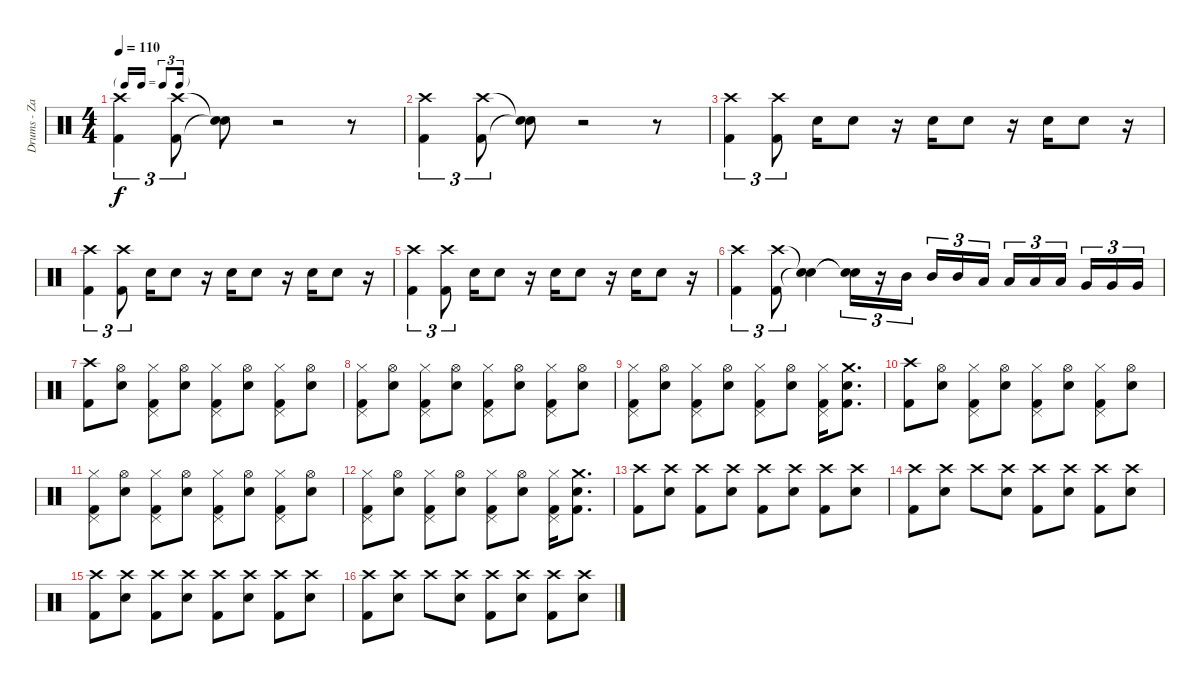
\track ("Drums - Zac" "Drums - Za") {instrument percussion}
\staff {score}
\articulation defaults
\ts (4 4)
\tf triplet16th
\tempo 110
\clef neutral
\ks c
("Crash high (hit)" "Kick (hit) 2").4{tu (3 2) dy f volume 12} ("Crash high (hit)" "Kick (hit) 2").8{tu (3 2)} ("Snare (hit)"{t} "Snare (hit)"{t}).8 r.2{volume 0} r.8 |
("Crash high (hit)" "Kick (hit) 2").4{tu (3 2) volume 12} ("Crash high (hit)" "Kick (hit) 2").8{tu (3 2)} ("Snare (hit)"{t} "Snare (hit)"{t}).8 r.2{volume 0} r.8 |
("Crash high (hit)" "Kick (hit) 2").4{tu (3 2) volume 12} ("Crash high (hit)" "Kick (hit) 2").8{tu (3 2)} "Snare (hit) 2".16 "Snare (hit) 2".8 r.16 "Snare (hit) 2".16 "Snare (hit) 2".8 r.16 "Snare (hit) 2".16 "Snare (hit) 2".8 r.16 |
("Crash high (hit)" "Kick (hit) 2").4{tu (3 2)} ("Crash high (hit)" "Kick (hit) 2").8{tu (3 2)} "Snare (hit) 2".16 "Snare (hit) 2".8 r.16 "Snare (hit) 2".16 "Snare (hit) 2".8 r.16 "Snare (hit) 2".16 "Snare (hit) 2".8 r.16 |
("Crash high (hit)" "Kick (hit) 2").4{tu (3 2)} ("Crash high (hit)" "Kick (hit) 2").8{tu (3 2)} "Snare (hit) 2".16 "Snare (hit) 2".8 r.16 "Snare (hit) 2".16 "Snare (hit) 2".8 r.16 "Snare (hit) 2".16 "Snare (hit) 2".8 r.16 |
("Crash high (hit)" "Kick (hit) 2").4{tu (3 2)} ("Crash high (hit)" "Kick (hit) 2").8{tu (3 2)} ("Snare (hit)"{t} "Snare (hit)"{t}).4 ("Snare (hit)"{t} "Snare (hit)"{t}).16{tu (3 2)} r.16{tu (3 2)} "Mid Tom (hit)".16{tu (3 2) beam splitsecondary} "Mid Tom (hit)".16{tu (3 2)} "Mid Tom (hit)".16{tu (3 2)} "Low Tom (hit)".16{tu (3 2)} "Low Tom (hit)".16{tu (3 2)} "Low Tom (hit)".16{tu (3 2)} "Low Tom (hit)".16{tu (3 2) beam splitsecondary} "Very Low Tom (hit)".16{tu (3 2)} "Very Low Tom (hit)".16{tu (3 2)} "Very Low Tom (hit)".16{tu (3 2)} |
("Crash high (hit)" "Kick (hit) 2").8 ("Hi-Hat (open)" "Snare (hit) 2").8 ("Pedal Hi-Hat (hit)" "Hi-Hat (closed)" "Kick (hit) 2").8 ("Hi-Hat (open)" "Snare (hit) 2").8 ("Pedal Hi-Hat (hit)" "Hi-Hat (closed)" "Kick (hit) 2").8 ("Hi-Hat (open)" "Snare (hit) 2").8 ("Pedal Hi-Hat (hit)" "Hi-Hat (closed)" "Kick (hit) 2").8 ("Hi-Hat (open)" "Snare (hit) 2").8 |
("Pedal Hi-Hat (hit)" "Hi-Hat (closed)" "Kick (hit) 2").8 ("Hi-Hat (open)" "Snare (hit) 2").8 ("Pedal Hi-Hat (hit)" "Hi-Hat (closed)" "Kick (hit) 2").8 ("Hi-Hat (open)" "Snare (hit) 2").8 ("Pedal Hi-Hat (hit)" "Hi-Hat (closed)" "Kick (hit) 2").8 ("Hi-Hat (open)" "Snare (hit) 2").8 ("Pedal Hi-Hat (hit)" "Hi-Hat (closed)" "Kick (hit) 2").8 ("Hi-Hat (open)" "Snare (hit) 2").8 |
("Pedal Hi-Hat (hit)" "Hi-Hat (closed)" "Kick (hit) 2").8 ("Hi-Hat (open)" "Snare (hit) 2").8 ("Pedal Hi-Hat (hit)" "Hi-Hat (closed)" "Kick (hit) 2").8 ("Hi-Hat (open)" "Snare (hit) 2").8 ("Pedal Hi-Hat (hit)" "Hi-Hat (closed)" "Kick (hit) 2").8 ("Hi-Hat (open)" "Snare (hit) 2").8 ("Pedal Hi-Hat (hit)" "Hi-Hat (closed)" "Kick (hit) 2").16 ("Crash medium (hit)" "Snare (hit) 2" "Kick (hit) 2").8{d} |
("Crash high (hit)" "Kick (hit) 2").8 ("Hi-Hat (open)" "Snare (hit) 2").8 ("Pedal Hi-Hat (hit)" "Hi-Hat (closed)" "Kick (hit) 2").8 ("Hi-Hat (open)" "Snare (hit) 2").8 ("Pedal Hi-Hat (hit)" "Hi-Hat (closed)" "Kick (hit) 2").8 ("Hi-Hat (open)" "Snare (hit) 2").8 ("Pedal Hi-Hat (hit)" "Hi-Hat (closed)" "Kick (hit) 2").8 ("Hi-Hat (open)" "Snare (hit) 2").8 |
("Pedal Hi-Hat (hit)" "Hi-Hat (closed)" "Kick (hit) 2").8 ("Hi-Hat (open)" "Snare (hit) 2").8 ("Pedal Hi-Hat (hit)" "Hi-Hat (closed)" "Kick (hit) 2").8 ("Hi-Hat (open)" "Snare (hit) 2").8 ("Pedal Hi-Hat (hit)" "Hi-Hat (closed)" "Kick (hit) 2").8 ("Hi-Hat (open)" "Snare (hit) 2").8 ("Pedal Hi-Hat (hit)" "Hi-Hat (closed)" "Kick (hit) 2").8 ("Hi-Hat (open)" "Snare (hit) 2").8 |
("Pedal Hi-Hat (hit)" "Hi-Hat (closed)" "Kick (hit) 2").8 ("Hi-Hat (open)" "Snare (hit) 2").8 ("Pedal Hi-Hat (hit)" "Hi-Hat (closed)" "Kick (hit) 2").8 ("Hi-Hat (open)" "Snare (hit) 2").8 ("Pedal Hi-Hat (hit)" "Hi-Hat (closed)" "Kick (hit) 2").8 ("Hi-Hat (open)" "Snare (hit) 2").8 ("Pedal Hi-Hat (hit)" "Hi-Hat (closed)" "Kick (hit) 2").16 ("Crash medium (hit)" "Snare (hit) 2" "Kick (hit) 2").8{d} |
("Crash high (hit)" "Kick (hit) 2").8 ("Crash high (hit)" "Snare (hit) 2").8 ("Crash high (hit)" "Kick (hit) 2").8 ("Crash high (hit)" "Snare (hit) 2").8 ("Crash high (hit)" "Kick (hit) 2").8 ("Crash high (hit)" "Snare (hit) 2").8 ("Crash high (hit)" "Kick (hit) 2").8 ("Crash high (hit)" "Snare (hit) 2").8 |
("Crash high (hit)" "Kick (hit) 2").8 ("Crash high (hit)" "Snare (hit) 2").8 "Crash high (hit)".8 ("Crash high (hit)" "Snare (hit) 2").8 ("Crash high (hit)" "Kick (hit) 2").8 ("Crash high (hit)" "Snare (hit) 2").8 ("Crash high (hit)" "Kick (hit) 2").8 ("Crash high (hit)" "Snare (hit) 2").8 |
("Crash high (hit)" "Kick (hit) 2").8 ("Crash high (hit)" "Snare (hit) 2").8 ("Crash high (hit)" "Kick (hit) 2").8 ("Crash high (hit)" "Snare (hit) 2").8 ("Crash high (hit)" "Kick (hit) 2").8 ("Crash high (hit)" "Snare (hit) 2").8 ("Crash high (hit)" "Kick (hit) 2").8 ("Crash high (hit)" "Snare (hit) 2").8 |
("Crash high (hit)" "Kick (hit) 2").8 ("Crash high (hit)" "Snare (hit) 2").8 "Crash high (hit)".8 ("Crash high (hit)" "Snare (hit) 2").8 ("Crash high (hit)" "Kick (hit) 2").8 ("Crash high (hit)" "Snare (hit) 2").8 ("Crash high (hit)" "Kick (hit) 2").8 ("Crash high (hit)" "Snare (hit) 2").8
